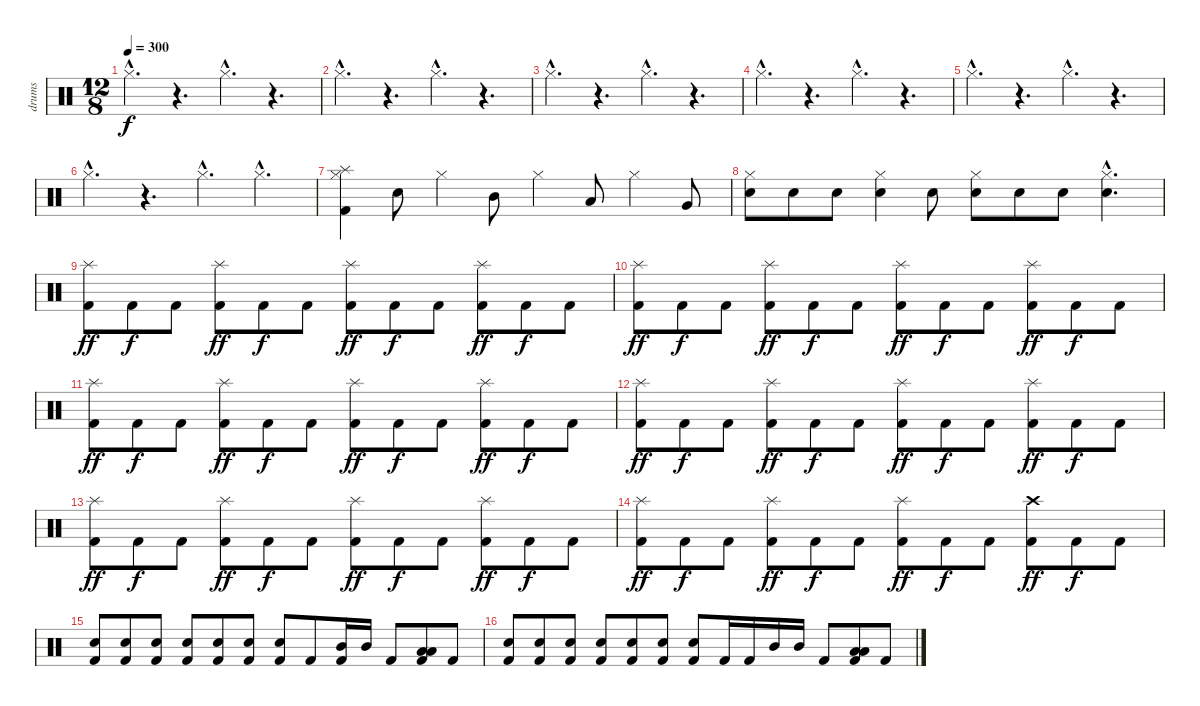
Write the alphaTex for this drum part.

\track ("drums" "drums") {instrument percussion}
\staff {score}
\articulation defaults
\ts (12 8)
\tempo 300
\tempo 310
\tempo 300
\clef neutral
\ks c "Hi-Hat (closed)"{hac}.4{d dy f}
r.4{d} "Hi-Hat (closed)"{hac}.4{d} r.4{d} |
"Hi-Hat (closed)"{hac}.4{d} r.4{d} "Hi-Hat (closed)"{hac}.4{d} r.4{d} |
"Hi-Hat (closed)"{hac}.4{d} r.4{d} "Hi-Hat (closed)"{hac}.4{d} r.4{d} |
"Hi-Hat (closed)"{hac}.4{d} r.4{d} "Hi-Hat (closed)"{hac}.4{d} r.4{d} |
"Hi-Hat (closed)"{hac}.4{d} r.4{d} "Hi-Hat (closed)"{hac}.4{d} r.4{d} |
"Hi-Hat (closed)"{hac}.4{d} r.4{d} "Hi-Hat (closed)"{hac}.4{d} "Hi-Hat (closed)"{hac}.4{d} |
("Hi-Hat (closed)" "Splash (hit)" "Kick (hit) 2").4 "Snare (hit) 2".8 "Hi-Hat (closed)".4 "Mid Tom (hit)".8 "Hi-Hat (closed)".4 "Low Tom (hit)".8 "Hi-Hat (closed)".4 "Very Low Tom (hit)".8 |
("Hi-Hat (closed)" "Snare (hit) 2").8 "Snare (hit) 2".8 "Snare (hit) 2".8 ("Hi-Hat (closed)" "Snare (hit) 2").4 "Snare (hit) 2".8 ("Hi-Hat (closed)" "Snare (hit) 2").8 "Snare (hit) 2".8 "Snare (hit) 2".8 ("Hi-Hat (closed)"{hac} "Snare (hit) 2"{hac}).4{d} |
("Splash (hit)" "Kick (hit) 2").8{dy ff} "Kick (hit) 2".8{dy f volume 15} "Kick (hit) 2".8 ("Splash (hit)" "Kick (hit) 2").8{dy ff} "Kick (hit) 2".8{dy f} "Kick (hit) 2".8 ("Splash (hit)" "Kick (hit) 2").8{dy ff} "Kick (hit) 2".8{dy f} "Kick (hit) 2".8 ("Splash (hit)" "Kick (hit) 2").8{dy ff} "Kick (hit) 2".8{dy f} "Kick (hit) 2".8 |
("Splash (hit)" "Kick (hit) 2").8{dy ff} "Kick (hit) 2".8{dy f} "Kick (hit) 2".8 ("Splash (hit)" "Kick (hit) 2").8{dy ff} "Kick (hit) 2".8{dy f} "Kick (hit) 2".8 ("Splash (hit)" "Kick (hit) 2").8{dy ff} "Kick (hit) 2".8{dy f} "Kick (hit) 2".8 ("Splash (hit)" "Kick (hit) 2").8{dy ff} "Kick (hit) 2".8{dy f} "Kick (hit) 2".8 |
("Splash (hit)" "Kick (hit) 2").8{dy ff} "Kick (hit) 2".8{dy f} "Kick (hit) 2".8 ("Splash (hit)" "Kick (hit) 2").8{dy ff} "Kick (hit) 2".8{dy f} "Kick (hit) 2".8 ("Splash (hit)" "Kick (hit) 2").8{dy ff} "Kick (hit) 2".8{dy f} "Kick (hit) 2".8 ("Splash (hit)" "Kick (hit) 2").8{dy ff} "Kick (hit) 2".8{dy f} "Kick (hit) 2".8 |
("Splash (hit)" "Kick (hit) 2").8{dy ff} "Kick (hit) 2".8{dy f} "Kick (hit) 2".8 ("Splash (hit)" "Kick (hit) 2").8{dy ff} "Kick (hit) 2".8{dy f} "Kick (hit) 2".8 ("Splash (hit)" "Kick (hit) 2").8{dy ff} "Kick (hit) 2".8{dy f} "Kick (hit) 2".8 ("Splash (hit)" "Kick (hit) 2").8{dy ff} "Kick (hit) 2".8{dy f} "Kick (hit) 2".8 |
("Splash (hit)" "Kick (hit) 2").8{dy ff} "Kick (hit) 2".8{dy f} "Kick (hit) 2".8 ("Splash (hit)" "Kick (hit) 2").8{dy ff} "Kick (hit) 2".8{dy f} "Kick (hit) 2".8 ("Splash (hit)" "Kick (hit) 2").8{dy ff} "Kick (hit) 2".8{dy f} "Kick (hit) 2".8 ("Splash (hit)" "Kick (hit) 2").8{dy ff} "Kick (hit) 2".8{dy f} "Kick (hit) 2".8 |
("Splash (hit)" "Kick (hit) 2").8{dy ff} "Kick (hit) 2".8{dy f} "Kick (hit) 2".8 ("Splash (hit)" "Kick (hit) 2").8{dy ff} "Kick (hit) 2".8{dy f} "Kick (hit) 2".8 ("Splash (hit)" "Kick (hit) 2").8{dy ff} "Kick (hit) 2".8{dy f} "Kick (hit) 2".8 ("Crash high (hit)" "Kick (hit) 2").8{dy ff} "Kick (hit) 2".8{dy f} "Kick (hit) 2".8 |
("Snare (hit) 2" "Kick (hit) 2").8 ("Snare (hit) 2" "Kick (hit) 2").8 ("Snare (hit) 2" "Kick (hit) 2").8 ("Snare (hit) 2" "Kick (hit) 2").8 ("Snare (hit) 2" "Kick (hit) 2").8 ("Snare (hit) 2" "Kick (hit) 2").8 ("Snare (hit) 2" "Kick (hit) 2").8 "Kick (hit) 2".8 ("Mid Tom (hit)" "Kick (hit) 2").16 "Mid Tom (hit)".16 "Kick (hit) 2".8 ("Low Tom (hit)" "Kick (hit) 2" "Low Tom (hit)").8 "Kick (hit) 2".8 |
("Snare (hit) 2" "Kick (hit) 2").8 ("Snare (hit) 2" "Kick (hit) 2").8 ("Snare (hit) 2" "Kick (hit) 2").8 ("Snare (hit) 2" "Kick (hit) 2").8 ("Snare (hit) 2" "Kick (hit) 2").8 ("Snare (hit) 2" "Kick (hit) 2").8 ("Snare (hit) 2" "Kick (hit) 2").8 "Kick (hit) 2".16 "Kick (hit) 2".16 "Mid Tom (hit)".16 "Mid Tom (hit)".16 "Kick (hit) 2".8 ("Low Tom (hit)" "Kick (hit) 2" "Low Tom (hit)").8 "Kick (hit) 2".8
